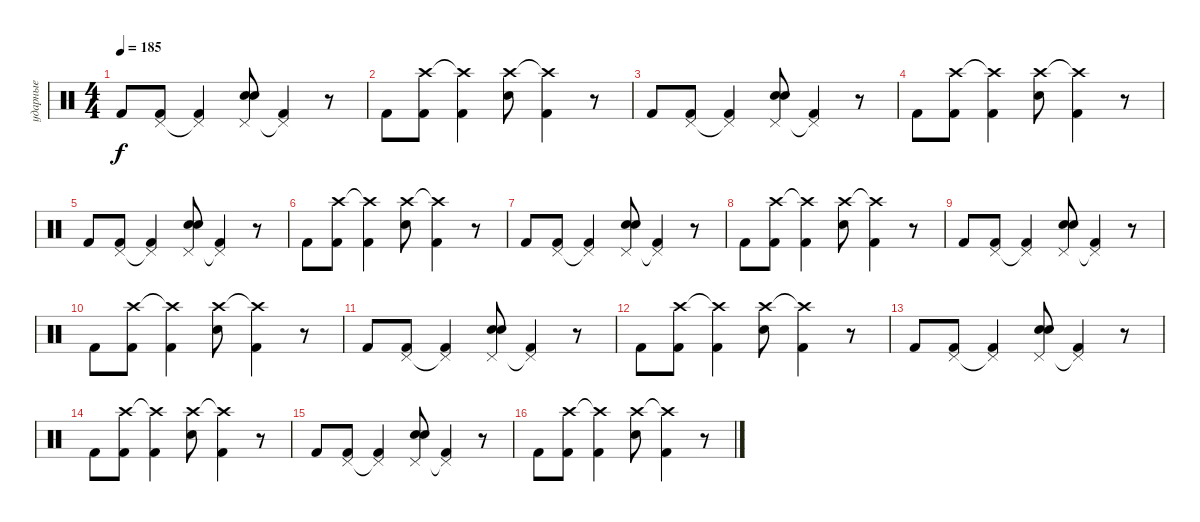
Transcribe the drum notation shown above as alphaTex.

\track ("ударные" "ударные") {instrument percussion}
\staff {score}
\articulation defaults
\ts (4 4)
\tempo 185
\clef neutral
\ks c "Kick (hit) 2".8{dy f}
("Pedal Hi-Hat (hit)" "Kick (hit) 2").8 ("Pedal Hi-Hat (hit)"{t} "Kick (hit) 2").4 ("Pedal Hi-Hat (hit)" "Electric Snare (hit)" "Snare (hit) 2").8 ("Pedal Hi-Hat (hit)"{t} "Kick (hit) 2").4 r.8 |
"Kick (hit) 2".8 ("Crash high (hit)" "Kick (hit) 2").8 ("Crash high (hit)"{t} "Kick (hit) 2").4 ("Crash high (hit)" "Snare (hit) 2").8 ("Crash high (hit)"{t} "Kick (hit) 2").4 r.8 |
"Kick (hit) 2".8 ("Pedal Hi-Hat (hit)" "Kick (hit) 2").8 ("Pedal Hi-Hat (hit)"{t} "Kick (hit) 2").4 ("Pedal Hi-Hat (hit)" "Electric Snare (hit)" "Snare (hit) 2").8 ("Pedal Hi-Hat (hit)"{t} "Kick (hit) 2").4 r.8 |
"Kick (hit) 2".8 ("Crash high (hit)" "Kick (hit) 2").8 ("Crash high (hit)"{t} "Kick (hit) 2").4 ("Crash high (hit)" "Snare (hit) 2").8 ("Crash high (hit)"{t} "Kick (hit) 2").4 r.8 |
"Kick (hit) 2".8 ("Pedal Hi-Hat (hit)" "Kick (hit) 2").8 ("Pedal Hi-Hat (hit)"{t} "Kick (hit) 2").4 ("Pedal Hi-Hat (hit)" "Electric Snare (hit)" "Snare (hit) 2").8 ("Pedal Hi-Hat (hit)"{t} "Kick (hit) 2").4 r.8 |
"Kick (hit) 2".8 ("Crash high (hit)" "Kick (hit) 2").8 ("Crash high (hit)"{t} "Kick (hit) 2").4 ("Crash high (hit)" "Snare (hit) 2").8 ("Crash high (hit)"{t} "Kick (hit) 2").4 r.8 |
"Kick (hit) 2".8 ("Pedal Hi-Hat (hit)" "Kick (hit) 2").8 ("Pedal Hi-Hat (hit)"{t} "Kick (hit) 2").4 ("Pedal Hi-Hat (hit)" "Electric Snare (hit)" "Snare (hit) 2").8 ("Pedal Hi-Hat (hit)"{t} "Kick (hit) 2").4 r.8 |
"Kick (hit) 2".8 ("Crash high (hit)" "Kick (hit) 2").8 ("Crash high (hit)"{t} "Kick (hit) 2").4 ("Crash high (hit)" "Snare (hit) 2").8 ("Crash high (hit)"{t} "Kick (hit) 2").4 r.8 |
"Kick (hit) 2".8 ("Pedal Hi-Hat (hit)" "Kick (hit) 2").8 ("Pedal Hi-Hat (hit)"{t} "Kick (hit) 2").4 ("Pedal Hi-Hat (hit)" "Electric Snare (hit)" "Snare (hit) 2").8 ("Pedal Hi-Hat (hit)"{t} "Kick (hit) 2").4 r.8 |
"Kick (hit) 2".8 ("Crash high (hit)" "Kick (hit) 2").8 ("Crash high (hit)"{t} "Kick (hit) 2").4 ("Crash high (hit)" "Snare (hit) 2").8 ("Crash high (hit)"{t} "Kick (hit) 2").4 r.8 |
"Kick (hit) 2".8 ("Pedal Hi-Hat (hit)" "Kick (hit) 2").8 ("Pedal Hi-Hat (hit)"{t} "Kick (hit) 2").4 ("Pedal Hi-Hat (hit)" "Electric Snare (hit)" "Snare (hit) 2").8 ("Pedal Hi-Hat (hit)"{t} "Kick (hit) 2").4 r.8 |
"Kick (hit) 2".8 ("Crash high (hit)" "Kick (hit) 2").8 ("Crash high (hit)"{t} "Kick (hit) 2").4 ("Crash high (hit)" "Snare (hit) 2").8 ("Crash high (hit)"{t} "Kick (hit) 2").4 r.8 |
"Kick (hit) 2".8 ("Pedal Hi-Hat (hit)" "Kick (hit) 2").8 ("Pedal Hi-Hat (hit)"{t} "Kick (hit) 2").4 ("Pedal Hi-Hat (hit)" "Electric Snare (hit)" "Snare (hit) 2").8 ("Pedal Hi-Hat (hit)"{t} "Kick (hit) 2").4 r.8 |
"Kick (hit) 2".8 ("Crash high (hit)" "Kick (hit) 2").8 ("Crash high (hit)"{t} "Kick (hit) 2").4 ("Crash high (hit)" "Snare (hit) 2").8 ("Crash high (hit)"{t} "Kick (hit) 2").4 r.8 |
"Kick (hit) 2".8 ("Pedal Hi-Hat (hit)" "Kick (hit) 2").8 ("Pedal Hi-Hat (hit)"{t} "Kick (hit) 2").4 ("Pedal Hi-Hat (hit)" "Electric Snare (hit)" "Snare (hit) 2").8 ("Pedal Hi-Hat (hit)"{t} "Kick (hit) 2").4 r.8 |
"Kick (hit) 2".8 ("Crash high (hit)" "Kick (hit) 2").8 ("Crash high (hit)"{t} "Kick (hit) 2").4 ("Crash high (hit)" "Snare (hit) 2").8 ("Crash high (hit)"{t} "Kick (hit) 2").4 r.8
